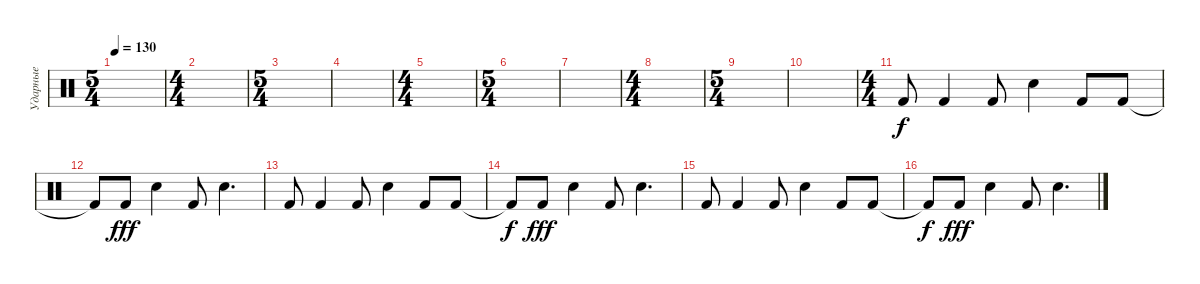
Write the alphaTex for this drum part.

\track ("Ударные" "Ударные") {instrument percussion}
\staff {score}
\articulation defaults
\ts (5 4)
\tempo 130
\clef neutral
\ks c
|
\ts (4 4)
|
\ts (5 4)
|
|
\ts (4 4)
|
\ts (5 4)
|
|
\ts (4 4)
|
\ts (5 4)
|
|
\ts (4 4)
"Kick (hit) 2".8 "Kick (hit) 2".4 "Kick (hit) 2".8 "Snare (hit) 2".4 "Kick (hit) 2".8 "Kick (hit) 2".8 |
"Kick (hit) 2"{t}.8{dy f} "Kick (hit) 2".8{dy fff} "Snare (hit) 2".4 "Kick (hit) 2".8 "Snare (hit) 2".4{d} |
"Kick (hit) 2".8 "Kick (hit) 2".4 "Kick (hit) 2".8 "Snare (hit) 2".4 "Kick (hit) 2".8 "Kick (hit) 2".8 |
"Kick (hit) 2"{t}.8{dy f} "Kick (hit) 2".8{dy fff} "Snare (hit) 2".4 "Kick (hit) 2".8 "Snare (hit) 2".4{d} |
"Kick (hit) 2".8 "Kick (hit) 2".4 "Kick (hit) 2".8 "Snare (hit) 2".4 "Kick (hit) 2".8 "Kick (hit) 2".8 |
"Kick (hit) 2"{t}.8{dy f} "Kick (hit) 2".8{dy fff} "Snare (hit) 2".4 "Kick (hit) 2".8 "Snare (hit) 2".4{d}
